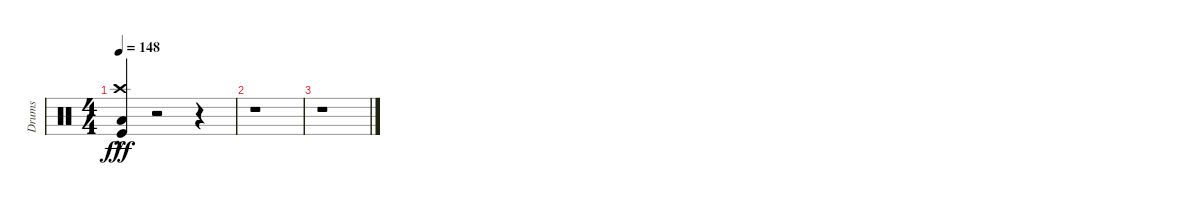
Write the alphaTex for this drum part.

\track ("Drums" "Drums") {instrument percussion}
\staff {score}
\articulation defaults
\ts (4 4)
\tempo 148
\clef neutral
\ks c
("Kick (hit)"{hac} "Crash high (hit)" "Low Tom (hit)").4{dy fff} r.2 r.4 |
r.1 |
r.1
